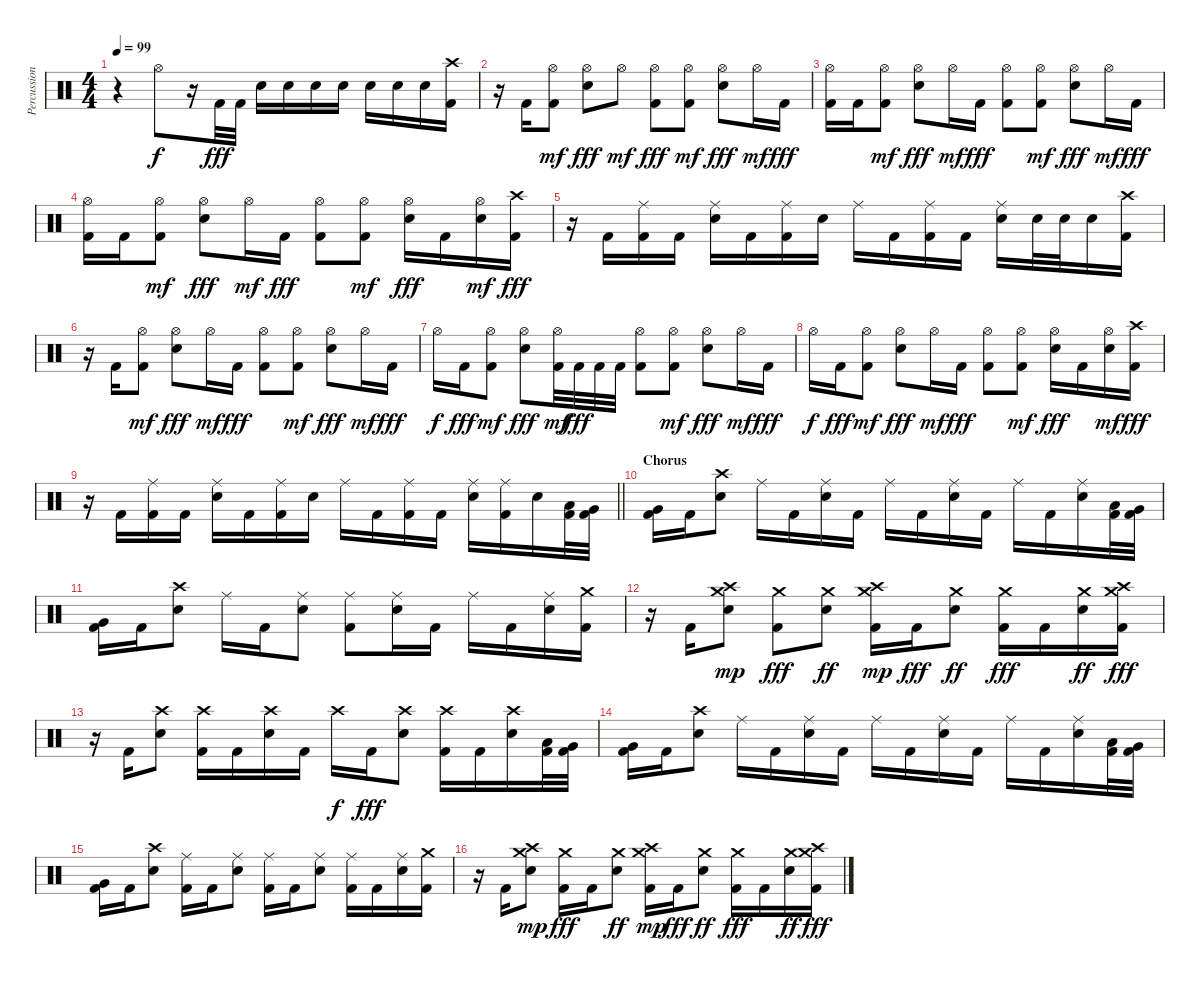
\track ("Percussions" "Percussion") {instrument percussion}
\staff {score}
\articulation defaults
\ts (4 4)
\tempo 99
\clef neutral
\ks c
r.4{dy f} "Hi-Hat (open)".8 r.16 "Kick (hit) 2".32{dy fff} "Kick (hit) 2".32 "Snare (hit) 2".16 "Snare (hit) 2".16 "Snare (hit) 2".16 "Snare (hit) 2".16 "Snare (hit) 2".16 "Snare (hit) 2".16 "Snare (hit) 2".16 ("Kick (hit) 2" "Crash high (hit)").16 |
r.16 "Kick (hit) 2".16 ("Kick (hit) 2" "Hi-Hat (open)").8{dy mf} ("Snare (hit) 2" "Hi-Hat (open)").8{dy fff} "Hi-Hat (open)".8{dy mf} ("Kick (hit) 2" "Hi-Hat (open)").8{dy fff} ("Kick (hit) 2" "Hi-Hat (open)").8{dy mf} ("Snare (hit) 2" "Hi-Hat (open)").8{dy fff} "Hi-Hat (open)".16{dy mf} "Kick (hit) 2".16{dy fff} |
("Kick (hit) 2" "Hi-Hat (open)").16 "Kick (hit) 2".16 ("Kick (hit) 2" "Hi-Hat (open)").8{dy mf} ("Snare (hit) 2" "Hi-Hat (open)").8{dy fff} "Hi-Hat (open)".16{dy mf} "Kick (hit) 2".16{dy fff} ("Kick (hit) 2" "Hi-Hat (open)").8 ("Kick (hit) 2" "Hi-Hat (open)").8{dy mf} ("Snare (hit) 2" "Hi-Hat (open)").8{dy fff} "Hi-Hat (open)".16{dy mf} "Kick (hit) 2".16{dy fff} |
("Kick (hit) 2" "Hi-Hat (open)").16 "Kick (hit) 2".16 ("Kick (hit) 2" "Hi-Hat (open)").8{dy mf} ("Snare (hit) 2" "Hi-Hat (open)").8{dy fff} "Hi-Hat (open)".16{dy mf} "Kick (hit) 2".16{dy fff} ("Kick (hit) 2" "Hi-Hat (open)").8 ("Kick (hit) 2" "Hi-Hat (open)").8{dy mf} ("Snare (hit) 2" "Hi-Hat (open)").16{dy fff} "Kick (hit) 2".16 ("Snare (hit) 2" "Hi-Hat (open)").16{dy mf} ("Kick (hit) 2" "Crash high (hit)").16{dy fff} |
r.16 "Kick (hit) 2".16 ("Kick (hit) 2" "Ride (middle)").16 "Kick (hit) 2".16 ("Snare (hit) 2" "Ride (middle)").16 "Kick (hit) 2".16 ("Kick (hit) 2" "Ride (middle)").16 "Snare (hit) 2".16 "Ride (middle)".16 "Kick (hit) 2".16 ("Kick (hit) 2" "Ride (middle)").16 "Kick (hit) 2".16 ("Snare (hit) 2" "Ride (middle)").16 "Snare (hit) 2".32 "Snare (hit) 2".32 "Snare (hit) 2".16 ("Kick (hit) 2" "Crash high (hit)").16 |
r.16 "Kick (hit) 2".16 ("Kick (hit) 2" "Hi-Hat (open)").8{dy mf} ("Snare (hit) 2" "Hi-Hat (open)").8{dy fff} "Hi-Hat (open)".16{dy mf} "Kick (hit) 2".16{dy fff} ("Kick (hit) 2" "Hi-Hat (open)").8 ("Kick (hit) 2" "Hi-Hat (open)").8{dy mf} ("Snare (hit) 2" "Hi-Hat (open)").8{dy fff} "Hi-Hat (open)".16{dy mf} "Kick (hit) 2".16{dy fff} |
"Hi-Hat (open)".16{dy f} "Kick (hit) 2".16{dy fff} ("Kick (hit) 2" "Hi-Hat (open)").8{dy mf} ("Snare (hit) 2" "Hi-Hat (open)").8{dy fff} ("Kick (hit) 2" "Hi-Hat (open)").32{dy mf} "Kick (hit) 2".32{dy fff} "Kick (hit) 2".32 "Kick (hit) 2".32 ("Kick (hit) 2" "Hi-Hat (open)").8 ("Kick (hit) 2" "Hi-Hat (open)").8{dy mf} ("Snare (hit) 2" "Hi-Hat (open)").8{dy fff} "Hi-Hat (open)".16{dy mf} "Kick (hit) 2".16{dy fff} |
"Hi-Hat (open)".16{dy f} "Kick (hit) 2".16{dy fff} ("Kick (hit) 2" "Hi-Hat (open)").8{dy mf} ("Snare (hit) 2" "Hi-Hat (open)").8{dy fff} "Hi-Hat (open)".16{dy mf} "Kick (hit) 2".16{dy fff} ("Kick (hit) 2" "Hi-Hat (open)").8 ("Kick (hit) 2" "Hi-Hat (open)").8{dy mf} ("Snare (hit) 2" "Hi-Hat (open)").16{dy fff} "Kick (hit) 2".16 ("Snare (hit) 2" "Hi-Hat (open)").16{dy mf} ("Kick (hit) 2" "Crash high (hit)").16{dy fff} |
\barLineRight lightlight
r.16 "Kick (hit) 2".16 ("Kick (hit) 2" "Ride (middle)").16 "Kick (hit) 2".16 ("Snare (hit) 2" "Ride (middle)").16 "Kick (hit) 2".16 ("Kick (hit) 2" "Ride (middle)").16 "Snare (hit) 2".16 "Ride (middle)".16 "Kick (hit) 2".16 ("Kick (hit) 2" "Ride (middle)").16 "Kick (hit) 2".16 ("Snare (hit) 2" "Ride (middle)").16 ("Kick (hit) 2" "Ride (middle)").16 "Snare (hit) 2".16 ("Kick (hit) 2" "Low Tom (hit)").32 ("Kick (hit) 2" "Very Low Tom (hit)").32 |
\section ("" "Chorus")
("Kick (hit) 2" "Very Low Tom (hit)").16 "Kick (hit) 2".16 ("Snare (hit) 2" "Crash high (hit)").8 "Ride (middle)".16 "Kick (hit) 2".16 ("Snare (hit) 2" "Ride (middle)").16 "Kick (hit) 2".16 "Ride (middle)".16 "Kick (hit) 2".16 ("Snare (hit) 2" "Ride (middle)").16 "Kick (hit) 2".16 "Ride (middle)".16 "Kick (hit) 2".16 ("Snare (hit) 2" "Ride (middle)").16 ("Kick (hit) 2" "Low Tom (hit)").32 ("Kick (hit) 2" "Very Low Tom (hit)").32 |
("Kick (hit) 2" "Very Low Tom (hit)").16 "Kick (hit) 2".16 ("Snare (hit) 2" "Crash high (hit)").8 "Ride (middle)".16 "Kick (hit) 2".16 ("Snare (hit) 2" "Ride (middle)").8 ("Kick (hit) 2" "Ride (middle)").8 ("Snare (hit) 2" "Ride (middle)").16 "Kick (hit) 2".16 "Ride (middle)".16 "Kick (hit) 2".16 ("Snare (hit) 2" "Ride (middle)").16 ("Kick (hit) 2" "Crash medium (hit)").16 |
r.16 "Kick (hit) 2".16 ("Snare (hit) 2" "Crash medium (hit)" "Crash high (hit)").8{dy mp} ("Kick (hit) 2" "Crash medium (hit)").8{dy fff} ("Snare (hit) 2" "Crash medium (hit)").8{dy ff} ("Kick (hit) 2" "Crash medium (hit)" "Crash high (hit)").16{dy mp} "Kick (hit) 2".16{dy fff} ("Snare (hit) 2" "Crash medium (hit)").8{dy ff} ("Kick (hit) 2" "Crash medium (hit)").16{dy fff} "Kick (hit) 2".16 ("Snare (hit) 2" "Crash medium (hit)").16{dy ff} ("Kick (hit) 2" "Crash high (hit)" "Crash medium (hit)").16{dy fff} |
r.16 "Kick (hit) 2".16 ("Snare (hit) 2" "Crash high (hit)").8 ("Kick (hit) 2" "Crash high (hit)").16 "Kick (hit) 2".16 ("Snare (hit) 2" "Crash high (hit)").16 "Kick (hit) 2".16 "Crash high (hit)".16{dy f} "Kick (hit) 2".16{dy fff} ("Snare (hit) 2" "Crash high (hit)").8 ("Kick (hit) 2" "Crash high (hit)").16 "Kick (hit) 2".16 ("Snare (hit) 2" "Crash high (hit)").16 ("Kick (hit) 2" "Low Tom (hit)").32 ("Kick (hit) 2" "Very Low Tom (hit)").32 |
("Kick (hit) 2" "Very Low Tom (hit)").16 "Kick (hit) 2".16 ("Snare (hit) 2" "Crash high (hit)").8 "Ride (middle)".16 "Kick (hit) 2".16 ("Snare (hit) 2" "Ride (middle)").16 "Kick (hit) 2".16 "Ride (middle)".16 "Kick (hit) 2".16 ("Snare (hit) 2" "Ride (middle)").16 "Kick (hit) 2".16 "Ride (middle)".16 "Kick (hit) 2".16 ("Snare (hit) 2" "Ride (middle)").16 ("Kick (hit) 2" "Low Tom (hit)").32 ("Kick (hit) 2" "Very Low Tom (hit)").32 |
("Kick (hit) 2" "Very Low Tom (hit)").16 "Kick (hit) 2".16 ("Snare (hit) 2" "Crash high (hit)").8 ("Kick (hit) 2" "Ride (middle)").16 "Kick (hit) 2".16 ("Snare (hit) 2" "Ride (middle)").8 ("Kick (hit) 2" "Ride (middle)").16 "Kick (hit) 2".16 ("Snare (hit) 2" "Ride (middle)").8 ("Kick (hit) 2" "Ride (middle)").16 "Kick (hit) 2".16 ("Snare (hit) 2" "Ride (middle)").16 ("Kick (hit) 2" "Crash medium (hit)").16 |
r.16 "Kick (hit) 2".16 ("Snare (hit) 2" "Crash medium (hit)" "Crash high (hit)").8{dy mp} ("Kick (hit) 2" "Crash medium (hit)").16{dy fff} "Kick (hit) 2".16 ("Snare (hit) 2" "Crash medium (hit)").8{dy ff} ("Kick (hit) 2" "Crash medium (hit)" "Crash high (hit)").16{dy mp} "Kick (hit) 2".16{dy fff} ("Snare (hit) 2" "Crash medium (hit)").8{dy ff} ("Kick (hit) 2" "Crash medium (hit)").16{dy fff} "Kick (hit) 2".16 ("Snare (hit) 2" "Crash medium (hit)").16{dy ff} ("Kick (hit) 2" "Crash high (hit)" "Crash medium (hit)").16{dy fff}
